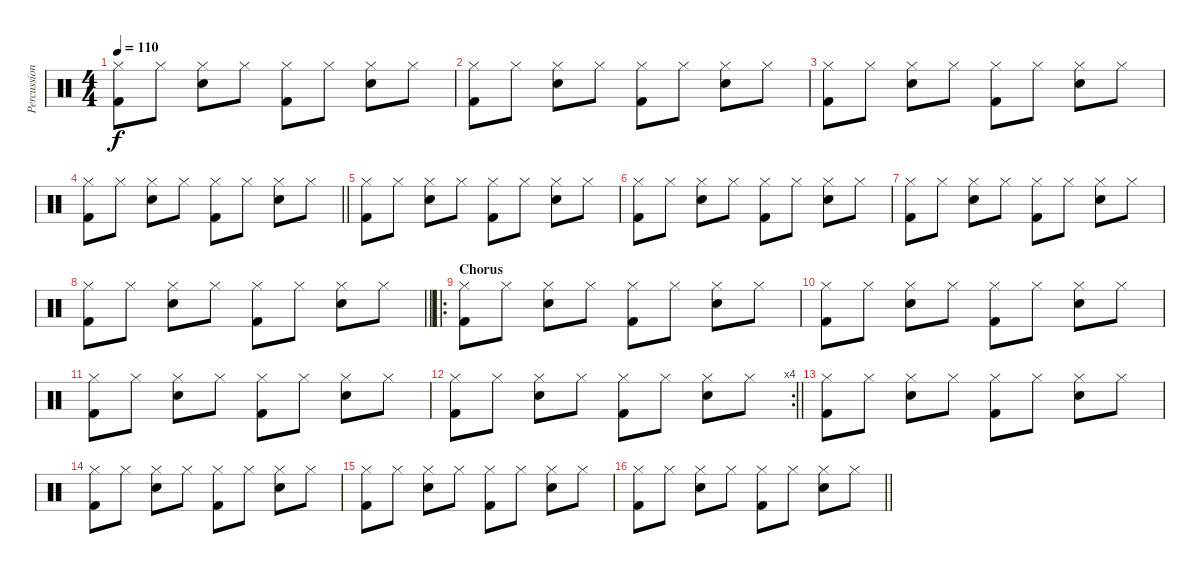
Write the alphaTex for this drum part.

\track ("Percussion" "Percussion") {instrument percussion}
\staff {score}
\articulation defaults
\ts (4 4)
\tempo 110
\clef neutral
\ks c
("Hi-Hat (closed)" "Kick (hit) 2").8{dy f} "Hi-Hat (closed)".8 ("Hi-Hat (closed)" "Electric Snare (hit)").8 "Hi-Hat (closed)".8 ("Hi-Hat (closed)" "Kick (hit) 2").8 "Hi-Hat (closed)".8 ("Hi-Hat (closed)" "Electric Snare (hit)").8 "Hi-Hat (closed)".8 |
("Hi-Hat (closed)" "Kick (hit) 2").8 "Hi-Hat (closed)".8 ("Hi-Hat (closed)" "Electric Snare (hit)").8 "Hi-Hat (closed)".8 ("Hi-Hat (closed)" "Kick (hit) 2").8 "Hi-Hat (closed)".8 ("Hi-Hat (closed)" "Electric Snare (hit)").8 "Hi-Hat (closed)".8 |
("Hi-Hat (closed)" "Kick (hit) 2").8 "Hi-Hat (closed)".8 ("Hi-Hat (closed)" "Electric Snare (hit)").8 "Hi-Hat (closed)".8 ("Hi-Hat (closed)" "Kick (hit) 2").8 "Hi-Hat (closed)".8 ("Hi-Hat (closed)" "Electric Snare (hit)").8 "Hi-Hat (closed)".8 |
\barLineRight lightlight
("Hi-Hat (closed)" "Kick (hit) 2").8 "Hi-Hat (closed)".8 ("Hi-Hat (closed)" "Electric Snare (hit)").8 "Hi-Hat (closed)".8 ("Hi-Hat (closed)" "Kick (hit) 2").8 "Hi-Hat (closed)".8 ("Hi-Hat (closed)" "Electric Snare (hit)").8 "Hi-Hat (closed)".8 |
("Hi-Hat (closed)" "Kick (hit) 2").8 "Hi-Hat (closed)".8 ("Hi-Hat (closed)" "Electric Snare (hit)").8 "Hi-Hat (closed)".8 ("Hi-Hat (closed)" "Kick (hit) 2").8 "Hi-Hat (closed)".8 ("Hi-Hat (closed)" "Electric Snare (hit)").8 "Hi-Hat (closed)".8 |
("Hi-Hat (closed)" "Kick (hit) 2").8 "Hi-Hat (closed)".8 ("Hi-Hat (closed)" "Electric Snare (hit)").8 "Hi-Hat (closed)".8 ("Hi-Hat (closed)" "Kick (hit) 2").8 "Hi-Hat (closed)".8 ("Hi-Hat (closed)" "Electric Snare (hit)").8 "Hi-Hat (closed)".8 |
("Hi-Hat (closed)" "Kick (hit) 2").8 "Hi-Hat (closed)".8 ("Hi-Hat (closed)" "Electric Snare (hit)").8 "Hi-Hat (closed)".8 ("Hi-Hat (closed)" "Kick (hit) 2").8 "Hi-Hat (closed)".8 ("Hi-Hat (closed)" "Electric Snare (hit)").8 "Hi-Hat (closed)".8 |
\barLineRight lightlight
("Hi-Hat (closed)" "Kick (hit) 2").8 "Hi-Hat (closed)".8 ("Hi-Hat (closed)" "Electric Snare (hit)").8 "Hi-Hat (closed)".8 ("Hi-Hat (closed)" "Kick (hit) 2").8 "Hi-Hat (closed)".8 ("Hi-Hat (closed)" "Electric Snare (hit)").8 "Hi-Hat (closed)".8 |
\ro
\section ("" "Chorus")
("Hi-Hat (closed)" "Kick (hit) 2").8 "Hi-Hat (closed)".8 ("Hi-Hat (closed)" "Electric Snare (hit)").8 "Hi-Hat (closed)".8 ("Hi-Hat (closed)" "Kick (hit) 2").8 "Hi-Hat (closed)".8 ("Hi-Hat (closed)" "Electric Snare (hit)").8 "Hi-Hat (closed)".8 |
("Hi-Hat (closed)" "Kick (hit) 2").8 "Hi-Hat (closed)".8 ("Hi-Hat (closed)" "Electric Snare (hit)").8 "Hi-Hat (closed)".8 ("Hi-Hat (closed)" "Kick (hit) 2").8 "Hi-Hat (closed)".8 ("Hi-Hat (closed)" "Electric Snare (hit)").8 "Hi-Hat (closed)".8 |
("Hi-Hat (closed)" "Kick (hit) 2").8 "Hi-Hat (closed)".8 ("Hi-Hat (closed)" "Electric Snare (hit)").8 "Hi-Hat (closed)".8 ("Hi-Hat (closed)" "Kick (hit) 2").8 "Hi-Hat (closed)".8 ("Hi-Hat (closed)" "Electric Snare (hit)").8 "Hi-Hat (closed)".8 |
\rc 4
\barLineRight lightlight
("Hi-Hat (closed)" "Kick (hit) 2").8 "Hi-Hat (closed)".8 ("Hi-Hat (closed)" "Electric Snare (hit)").8 "Hi-Hat (closed)".8 ("Hi-Hat (closed)" "Kick (hit) 2").8 "Hi-Hat (closed)".8 ("Hi-Hat (closed)" "Electric Snare (hit)").8 "Hi-Hat (closed)".8 |
("Hi-Hat (closed)" "Kick (hit) 2").8 "Hi-Hat (closed)".8 ("Hi-Hat (closed)" "Electric Snare (hit)").8 "Hi-Hat (closed)".8 ("Hi-Hat (closed)" "Kick (hit) 2").8 "Hi-Hat (closed)".8 ("Hi-Hat (closed)" "Electric Snare (hit)").8 "Hi-Hat (closed)".8 |
("Hi-Hat (closed)" "Kick (hit) 2").8 "Hi-Hat (closed)".8 ("Hi-Hat (closed)" "Electric Snare (hit)").8 "Hi-Hat (closed)".8 ("Hi-Hat (closed)" "Kick (hit) 2").8 "Hi-Hat (closed)".8 ("Hi-Hat (closed)" "Electric Snare (hit)").8 "Hi-Hat (closed)".8 |
("Hi-Hat (closed)" "Kick (hit) 2").8 "Hi-Hat (closed)".8 ("Hi-Hat (closed)" "Electric Snare (hit)").8 "Hi-Hat (closed)".8 ("Hi-Hat (closed)" "Kick (hit) 2").8 "Hi-Hat (closed)".8 ("Hi-Hat (closed)" "Electric Snare (hit)").8 "Hi-Hat (closed)".8 |
\barLineRight lightlight
("Hi-Hat (closed)" "Kick (hit) 2").8 "Hi-Hat (closed)".8 ("Hi-Hat (closed)" "Electric Snare (hit)").8 "Hi-Hat (closed)".8 ("Hi-Hat (closed)" "Kick (hit) 2").8 "Hi-Hat (closed)".8 ("Hi-Hat (closed)" "Electric Snare (hit)").8 "Hi-Hat (closed)".8
